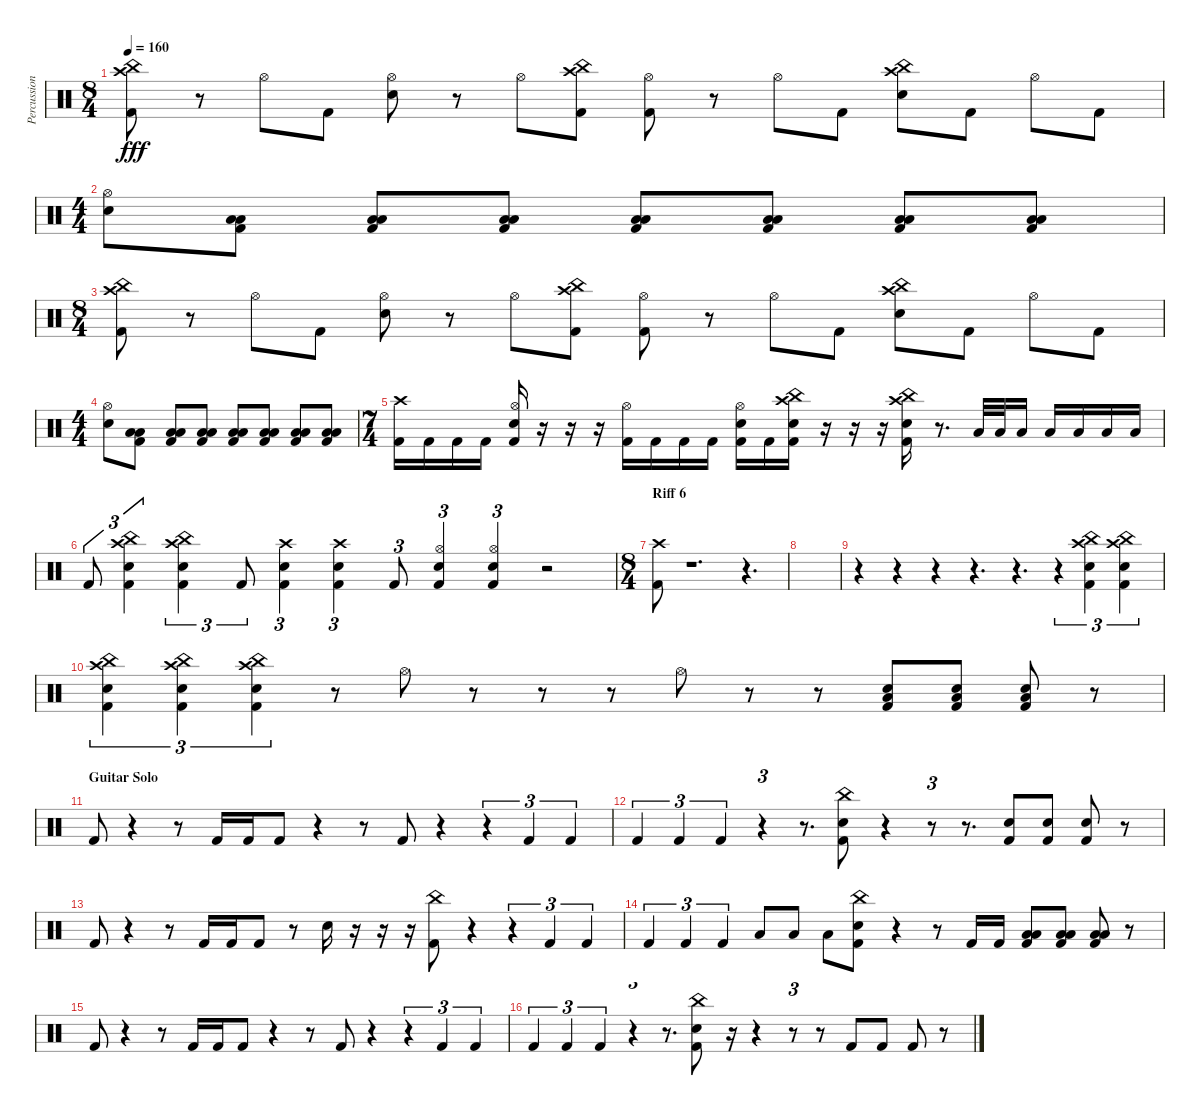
\track ("Percussion" "Percussion") {instrument percussion}
\staff {score}
\articulation defaults
\ts (8 4)
\tempo 160
\clef neutral
\ks c
("China (hit)" "Crash high (hit)" "Kick (hit) 2").8{dy fff} r.8 "Hi-Hat (open)".8 "Kick (hit) 2".8 ("Hi-Hat (open)" "Electric Snare (hit)").8 r.8 "Hi-Hat (open)".8 ("China (hit)" "Crash high (hit)" "Kick (hit) 2").8 ("Hi-Hat (open)" "Kick (hit) 2").8 r.8 "Hi-Hat (open)".8 "Kick (hit) 2".8 ("China (hit)" "Crash high (hit)" "Electric Snare (hit)").8 "Kick (hit) 2".8 "Hi-Hat (open)".8 "Kick (hit) 2".8 |
\ts (4 4)
("Hi-Hat (open)" "Electric Snare (hit)").8 ("Low Floor Tom (hit)" "Low Floor Tom (hit)" "Kick (hit) 2").8 ("Low Floor Tom (hit)" "Low Floor Tom (hit)" "Kick (hit) 2").8 ("Low Floor Tom (hit)" "Low Floor Tom (hit)" "Kick (hit) 2").8 ("Low Floor Tom (hit)" "Low Floor Tom (hit)" "Kick (hit) 2").8 ("Low Floor Tom (hit)" "Low Floor Tom (hit)" "Kick (hit) 2").8 ("Low Floor Tom (hit)" "Low Floor Tom (hit)" "Kick (hit) 2").8 ("Low Floor Tom (hit)" "Low Floor Tom (hit)" "Kick (hit) 2").8 |
\ts (8 4)
("China (hit)" "Crash high (hit)" "Kick (hit) 2").8 r.8 "Hi-Hat (open)".8 "Kick (hit) 2".8 ("Hi-Hat (open)" "Electric Snare (hit)").8 r.8 "Hi-Hat (open)".8 ("China (hit)" "Crash high (hit)" "Kick (hit) 2").8 ("Hi-Hat (open)" "Kick (hit) 2").8 r.8 "Hi-Hat (open)".8 "Kick (hit) 2".8 ("China (hit)" "Crash high (hit)" "Electric Snare (hit)").8 "Kick (hit) 2".8 "Hi-Hat (open)".8 "Kick (hit) 2".8 |
\ts (4 4)
("Hi-Hat (open)" "Electric Snare (hit)").8 ("Low Floor Tom (hit)" "Low Floor Tom (hit)" "Kick (hit) 2").8 ("Low Floor Tom (hit)" "Low Floor Tom (hit)" "Kick (hit) 2").8 ("Low Floor Tom (hit)" "Low Floor Tom (hit)" "Kick (hit) 2").8 ("Low Floor Tom (hit)" "Low Floor Tom (hit)" "Kick (hit) 2").8 ("Low Floor Tom (hit)" "Low Floor Tom (hit)" "Kick (hit) 2").8 ("Low Floor Tom (hit)" "Low Floor Tom (hit)" "Kick (hit) 2").8 ("Low Floor Tom (hit)" "Low Floor Tom (hit)" "Kick (hit) 2").8 |
\ts (7 4)
("Crash high (hit)" "Kick (hit) 2").16 "Kick (hit) 2".16 "Kick (hit) 2".16 "Kick (hit) 2".16 ("Hi-Hat (open)" "Electric Snare (hit)" "Kick (hit) 2").16 r.16 r.16 r.16 ("Hi-Hat (open)" "Kick (hit) 2").16 "Kick (hit) 2".16 "Kick (hit) 2".16 "Kick (hit) 2".16 ("Hi-Hat (open)" "Electric Snare (hit)" "Kick (hit) 2").16 "Kick (hit) 2".16 ("China (hit)" "Crash high (hit)" "Electric Snare (hit)" "Kick (hit) 2").16 r.16 r.16 r.16 ("China (hit)" "Crash high (hit)" "Electric Snare (hit)" "Kick (hit) 2").16 r.8{d} "Low Tom (hit)".32 "Low Tom (hit)".32 "Low Tom (hit)".16 "Low Tom (hit)".16 "Low Floor Tom (hit)".16 "Low Floor Tom (hit)".16 "Low Floor Tom (hit)".16 |
"Kick (hit) 2".8{tu (3 2)} ("China (hit)" "Crash high (hit)" "Electric Snare (hit)" "Kick (hit) 2").4{tu (3 2)} ("China (hit)" "Crash high (hit)" "Electric Snare (hit)" "Kick (hit) 2").4{tu (3 2)} "Kick (hit) 2".8{tu (3 2)} ("Crash high (hit)" "Electric Snare (hit)" "Kick (hit) 2").4{tu (3 2)} ("Crash high (hit)" "Electric Snare (hit)" "Kick (hit) 2").4{tu (3 2)} "Kick (hit) 2".8{tu (3 2)} ("Hi-Hat (open)" "Electric Snare (hit)" "Kick (hit) 2").4{tu (3 2)} ("Hi-Hat (open)" "Electric Snare (hit)" "Kick (hit) 2").4{tu (3 2)} r.2 |
\ts (8 4)
\section ("" "Riff 6")
("Crash high (hit)" "Kick (hit) 2").8 r.1{d} r.4{d} |
|
r.4 r.4 r.4 r.4{d} r.4{d} r.4{tu (3 2)} ("China (hit)" "Crash high (hit)" "Electric Snare (hit)" "Kick (hit) 2").4{tu (3 2)} ("China (hit)" "Crash high (hit)" "Electric Snare (hit)" "Kick (hit) 2").4{tu (3 2)} |
("China (hit)" "Crash high (hit)" "Electric Snare (hit)" "Kick (hit) 2").4{tu (3 2)} ("China (hit)" "Crash high (hit)" "Electric Snare (hit)" "Kick (hit) 2").4{tu (3 2)} ("China (hit)" "Crash high (hit)" "Electric Snare (hit)" "Kick (hit) 2").4{tu (3 2)} r.8 "Hi-Hat (open)".8 r.8 r.8 r.8 "Hi-Hat (open)".8 r.8 r.8 ("Electric Snare (hit)" "Low Floor Tom (hit)" "Kick (hit) 2").8 ("Electric Snare (hit)" "Low Floor Tom (hit)" "Kick (hit) 2").8 ("Electric Snare (hit)" "Low Floor Tom (hit)" "Kick (hit) 2").8 r.8 |
\section ("" "Guitar Solo")
"Kick (hit) 2".8 r.4 r.8 "Kick (hit) 2".16 "Kick (hit) 2".16 "Kick (hit) 2".8 r.4 r.8 "Kick (hit) 2".8 r.4 r.4{tu (3 2)} "Kick (hit) 2".4{tu (3 2)} "Kick (hit) 2".4{tu (3 2)} |
"Kick (hit) 2".4{tu (3 2)} "Kick (hit) 2".4{tu (3 2)} "Kick (hit) 2".4{tu (3 2)} r.4{tu (3 2)} r.8{d} ("China (hit)" "Electric Snare (hit)" "Kick (hit) 2").8 r.4 r.8{tu (3 2)} r.8{d} ("Electric Snare (hit)" "Kick (hit) 2").8 ("Electric Snare (hit)" "Kick (hit) 2").8 ("Electric Snare (hit)" "Kick (hit) 2").8 r.8 |
"Kick (hit) 2".8 r.4 r.8 "Kick (hit) 2".16 "Kick (hit) 2".16 "Kick (hit) 2".8 r.8 "Electric Snare (hit)".16 r.16 r.16 r.16 ("China (hit)" "Kick (hit) 2").8 r.4 r.4{tu (3 2)} "Kick (hit) 2".4{tu (3 2)} "Kick (hit) 2".4{tu (3 2)} |
"Kick (hit) 2".4{tu (3 2)} "Kick (hit) 2".4{tu (3 2)} "Kick (hit) 2".4{tu (3 2)} "Low Tom (hit)".8 "Low Tom (hit)".8 "Low Floor Tom (hit)".8 ("China (hit)" "Electric Snare (hit)" "Kick (hit) 2").8 r.4 r.8 "Kick (hit) 2".16 "Kick (hit) 2".16 ("Low Tom (hit)" "Low Floor Tom (hit)" "Kick (hit) 2").8 ("Low Tom (hit)" "Low Floor Tom (hit)" "Kick (hit) 2").8 ("Low Tom (hit)" "Low Floor Tom (hit)" "Kick (hit) 2").8 r.8 |
"Kick (hit) 2".8 r.4 r.8 "Kick (hit) 2".16 "Kick (hit) 2".16 "Kick (hit) 2".8 r.4 r.8 "Kick (hit) 2".8 r.4 r.4{tu (3 2)} "Kick (hit) 2".4{tu (3 2)} "Kick (hit) 2".4{tu (3 2)} |
"Kick (hit) 2".4{tu (3 2)} "Kick (hit) 2".4{tu (3 2)} "Kick (hit) 2".4{tu (3 2)} r.4{tu (3 2)} r.8{d} ("China (hit)" "Electric Snare (hit)" "Kick (hit) 2").8 r.16 r.4 r.8{tu (3 2)} r.8 "Kick (hit) 2".8 "Kick (hit) 2".8 "Kick (hit) 2".8 r.8
